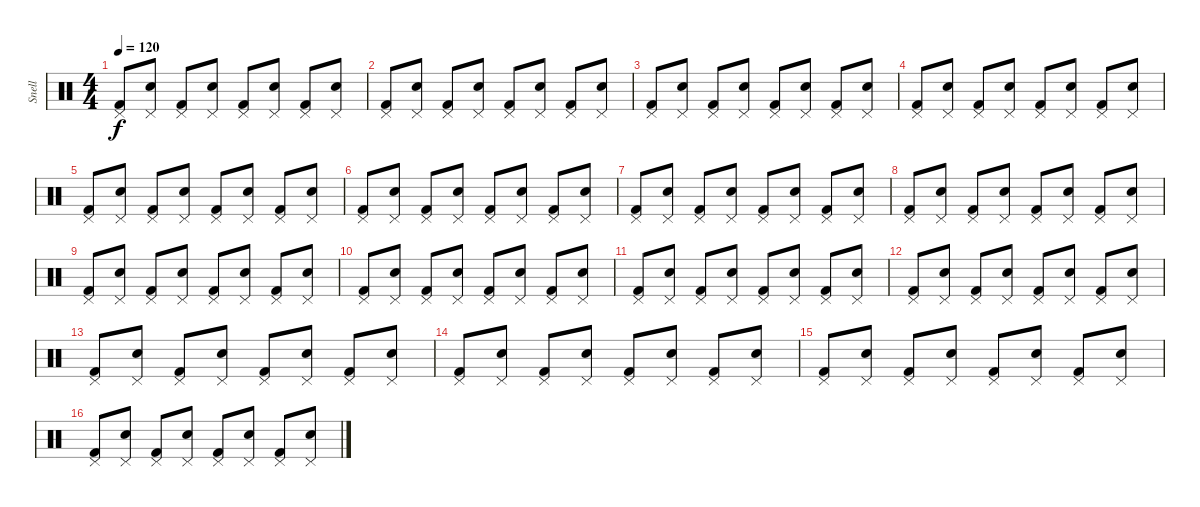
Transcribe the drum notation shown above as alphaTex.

\track ("Snell" "Snell") {instrument percussion}
\staff {score}
\articulation defaults
\ts (4 4)
\tempo 120
\clef neutral
\ks c
("Pedal Hi-Hat (hit)" "Kick (hit) 2").8{dy f} ("Pedal Hi-Hat (hit)" "Snare (hit) 2").8 ("Pedal Hi-Hat (hit)" "Kick (hit) 2").8 ("Pedal Hi-Hat (hit)" "Snare (hit) 2").8 ("Pedal Hi-Hat (hit)" "Kick (hit) 2").8 ("Pedal Hi-Hat (hit)" "Snare (hit) 2").8 ("Pedal Hi-Hat (hit)" "Kick (hit) 2").8 ("Pedal Hi-Hat (hit)" "Snare (hit) 2").8 |
("Pedal Hi-Hat (hit)" "Kick (hit) 2").8 ("Pedal Hi-Hat (hit)" "Snare (hit) 2").8 ("Pedal Hi-Hat (hit)" "Kick (hit) 2").8 ("Pedal Hi-Hat (hit)" "Snare (hit) 2").8 ("Pedal Hi-Hat (hit)" "Kick (hit) 2").8 ("Pedal Hi-Hat (hit)" "Snare (hit) 2").8 ("Pedal Hi-Hat (hit)" "Kick (hit) 2").8 ("Pedal Hi-Hat (hit)" "Snare (hit) 2").8 |
("Pedal Hi-Hat (hit)" "Kick (hit) 2").8 ("Pedal Hi-Hat (hit)" "Snare (hit) 2").8 ("Pedal Hi-Hat (hit)" "Kick (hit) 2").8 ("Pedal Hi-Hat (hit)" "Snare (hit) 2").8 ("Pedal Hi-Hat (hit)" "Kick (hit) 2").8 ("Pedal Hi-Hat (hit)" "Snare (hit) 2").8 ("Pedal Hi-Hat (hit)" "Kick (hit) 2").8 ("Pedal Hi-Hat (hit)" "Snare (hit) 2").8 |
("Pedal Hi-Hat (hit)" "Kick (hit) 2").8 ("Pedal Hi-Hat (hit)" "Snare (hit) 2").8 ("Pedal Hi-Hat (hit)" "Kick (hit) 2").8 ("Pedal Hi-Hat (hit)" "Snare (hit) 2").8 ("Pedal Hi-Hat (hit)" "Kick (hit) 2").8 ("Pedal Hi-Hat (hit)" "Snare (hit) 2").8 ("Pedal Hi-Hat (hit)" "Kick (hit) 2").8 ("Pedal Hi-Hat (hit)" "Snare (hit) 2").8 |
("Pedal Hi-Hat (hit)" "Kick (hit) 2").8 ("Pedal Hi-Hat (hit)" "Snare (hit) 2").8 ("Pedal Hi-Hat (hit)" "Kick (hit) 2").8 ("Pedal Hi-Hat (hit)" "Snare (hit) 2").8 ("Pedal Hi-Hat (hit)" "Kick (hit) 2").8 ("Pedal Hi-Hat (hit)" "Snare (hit) 2").8 ("Pedal Hi-Hat (hit)" "Kick (hit) 2").8 ("Pedal Hi-Hat (hit)" "Snare (hit) 2").8 |
("Pedal Hi-Hat (hit)" "Kick (hit) 2").8 ("Pedal Hi-Hat (hit)" "Snare (hit) 2").8 ("Pedal Hi-Hat (hit)" "Kick (hit) 2").8 ("Pedal Hi-Hat (hit)" "Snare (hit) 2").8 ("Pedal Hi-Hat (hit)" "Kick (hit) 2").8 ("Pedal Hi-Hat (hit)" "Snare (hit) 2").8 ("Pedal Hi-Hat (hit)" "Kick (hit) 2").8 ("Pedal Hi-Hat (hit)" "Snare (hit) 2").8 |
("Pedal Hi-Hat (hit)" "Kick (hit) 2").8 ("Pedal Hi-Hat (hit)" "Snare (hit) 2").8 ("Pedal Hi-Hat (hit)" "Kick (hit) 2").8 ("Pedal Hi-Hat (hit)" "Snare (hit) 2").8 ("Pedal Hi-Hat (hit)" "Kick (hit) 2").8 ("Pedal Hi-Hat (hit)" "Snare (hit) 2").8 ("Pedal Hi-Hat (hit)" "Kick (hit) 2").8 ("Pedal Hi-Hat (hit)" "Snare (hit) 2").8 |
("Pedal Hi-Hat (hit)" "Kick (hit) 2").8 ("Pedal Hi-Hat (hit)" "Snare (hit) 2").8 ("Pedal Hi-Hat (hit)" "Kick (hit) 2").8 ("Pedal Hi-Hat (hit)" "Snare (hit) 2").8 ("Pedal Hi-Hat (hit)" "Kick (hit) 2").8 ("Pedal Hi-Hat (hit)" "Snare (hit) 2").8 ("Pedal Hi-Hat (hit)" "Kick (hit) 2").8 ("Pedal Hi-Hat (hit)" "Snare (hit) 2").8 |
("Pedal Hi-Hat (hit)" "Kick (hit) 2").8 ("Pedal Hi-Hat (hit)" "Snare (hit) 2").8 ("Pedal Hi-Hat (hit)" "Kick (hit) 2").8 ("Pedal Hi-Hat (hit)" "Snare (hit) 2").8 ("Pedal Hi-Hat (hit)" "Kick (hit) 2").8 ("Pedal Hi-Hat (hit)" "Snare (hit) 2").8 ("Pedal Hi-Hat (hit)" "Kick (hit) 2").8 ("Pedal Hi-Hat (hit)" "Snare (hit) 2").8 |
("Pedal Hi-Hat (hit)" "Kick (hit) 2").8 ("Pedal Hi-Hat (hit)" "Snare (hit) 2").8 ("Pedal Hi-Hat (hit)" "Kick (hit) 2").8 ("Pedal Hi-Hat (hit)" "Snare (hit) 2").8 ("Pedal Hi-Hat (hit)" "Kick (hit) 2").8 ("Pedal Hi-Hat (hit)" "Snare (hit) 2").8 ("Pedal Hi-Hat (hit)" "Kick (hit) 2").8 ("Pedal Hi-Hat (hit)" "Snare (hit) 2").8 |
("Pedal Hi-Hat (hit)" "Kick (hit) 2").8 ("Pedal Hi-Hat (hit)" "Snare (hit) 2").8 ("Pedal Hi-Hat (hit)" "Kick (hit) 2").8 ("Pedal Hi-Hat (hit)" "Snare (hit) 2").8 ("Pedal Hi-Hat (hit)" "Kick (hit) 2").8 ("Pedal Hi-Hat (hit)" "Snare (hit) 2").8 ("Pedal Hi-Hat (hit)" "Kick (hit) 2").8 ("Pedal Hi-Hat (hit)" "Snare (hit) 2").8 |
("Pedal Hi-Hat (hit)" "Kick (hit) 2").8 ("Pedal Hi-Hat (hit)" "Snare (hit) 2").8 ("Pedal Hi-Hat (hit)" "Kick (hit) 2").8 ("Pedal Hi-Hat (hit)" "Snare (hit) 2").8 ("Pedal Hi-Hat (hit)" "Kick (hit) 2").8 ("Pedal Hi-Hat (hit)" "Snare (hit) 2").8 ("Pedal Hi-Hat (hit)" "Kick (hit) 2").8 ("Pedal Hi-Hat (hit)" "Snare (hit) 2").8 |
("Pedal Hi-Hat (hit)" "Kick (hit) 2").8 ("Pedal Hi-Hat (hit)" "Snare (hit) 2").8 ("Pedal Hi-Hat (hit)" "Kick (hit) 2").8 ("Pedal Hi-Hat (hit)" "Snare (hit) 2").8 ("Pedal Hi-Hat (hit)" "Kick (hit) 2").8 ("Pedal Hi-Hat (hit)" "Snare (hit) 2").8 ("Pedal Hi-Hat (hit)" "Kick (hit) 2").8 ("Pedal Hi-Hat (hit)" "Snare (hit) 2").8 |
("Pedal Hi-Hat (hit)" "Kick (hit) 2").8 ("Pedal Hi-Hat (hit)" "Snare (hit) 2").8 ("Pedal Hi-Hat (hit)" "Kick (hit) 2").8 ("Pedal Hi-Hat (hit)" "Snare (hit) 2").8 ("Pedal Hi-Hat (hit)" "Kick (hit) 2").8 ("Pedal Hi-Hat (hit)" "Snare (hit) 2").8 ("Pedal Hi-Hat (hit)" "Kick (hit) 2").8 ("Pedal Hi-Hat (hit)" "Snare (hit) 2").8 |
("Pedal Hi-Hat (hit)" "Kick (hit) 2").8 ("Pedal Hi-Hat (hit)" "Snare (hit) 2").8 ("Pedal Hi-Hat (hit)" "Kick (hit) 2").8 ("Pedal Hi-Hat (hit)" "Snare (hit) 2").8 ("Pedal Hi-Hat (hit)" "Kick (hit) 2").8 ("Pedal Hi-Hat (hit)" "Snare (hit) 2").8 ("Pedal Hi-Hat (hit)" "Kick (hit) 2").8 ("Pedal Hi-Hat (hit)" "Snare (hit) 2").8 |
("Pedal Hi-Hat (hit)" "Kick (hit) 2").8 ("Pedal Hi-Hat (hit)" "Snare (hit) 2").8 ("Pedal Hi-Hat (hit)" "Kick (hit) 2").8 ("Pedal Hi-Hat (hit)" "Snare (hit) 2").8 ("Pedal Hi-Hat (hit)" "Kick (hit) 2").8 ("Pedal Hi-Hat (hit)" "Snare (hit) 2").8 ("Pedal Hi-Hat (hit)" "Kick (hit) 2").8 ("Pedal Hi-Hat (hit)" "Snare (hit) 2").8
